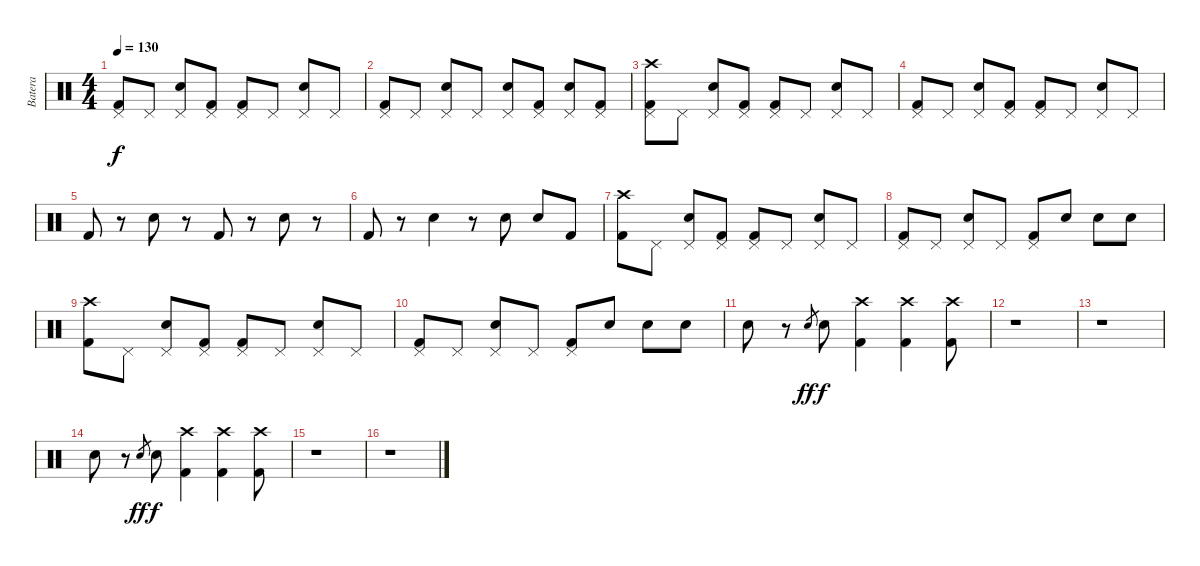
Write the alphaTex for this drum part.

\track ("Batera" "Batera") {instrument percussion}
\staff {score}
\articulation defaults
\ts (4 4)
\tempo 130
\clef neutral
\ks c
("Pedal Hi-Hat (hit)" "Kick (hit) 2").8{dy f} "Pedal Hi-Hat (hit)".8 ("Pedal Hi-Hat (hit)" "Snare (hit) 2").8 ("Pedal Hi-Hat (hit)" "Kick (hit) 2").8 ("Pedal Hi-Hat (hit)" "Kick (hit) 2").8 "Pedal Hi-Hat (hit)".8 ("Pedal Hi-Hat (hit)" "Snare (hit) 2").8 "Pedal Hi-Hat (hit)".8 |
("Pedal Hi-Hat (hit)" "Kick (hit) 2").8 "Pedal Hi-Hat (hit)".8 ("Pedal Hi-Hat (hit)" "Snare (hit) 2").8 "Pedal Hi-Hat (hit)".8 ("Pedal Hi-Hat (hit)" "Snare (hit) 2").8 ("Pedal Hi-Hat (hit)" "Kick (hit) 2").8 ("Pedal Hi-Hat (hit)" "Snare (hit) 2").8 ("Pedal Hi-Hat (hit)" "Kick (hit) 2").8 |
("Pedal Hi-Hat (hit)" "Crash high (hit)" "Kick (hit) 2").8 "Pedal Hi-Hat (hit)".8 ("Pedal Hi-Hat (hit)" "Snare (hit) 2").8 ("Pedal Hi-Hat (hit)" "Kick (hit) 2").8 ("Pedal Hi-Hat (hit)" "Kick (hit) 2").8 "Pedal Hi-Hat (hit)".8 ("Pedal Hi-Hat (hit)" "Snare (hit) 2").8 "Pedal Hi-Hat (hit)".8 |
("Pedal Hi-Hat (hit)" "Kick (hit) 2").8 "Pedal Hi-Hat (hit)".8 ("Pedal Hi-Hat (hit)" "Snare (hit) 2").8 ("Pedal Hi-Hat (hit)" "Kick (hit) 2").8 ("Pedal Hi-Hat (hit)" "Kick (hit) 2").8 "Pedal Hi-Hat (hit)".8 ("Pedal Hi-Hat (hit)" "Snare (hit) 2").8 "Pedal Hi-Hat (hit)".8 |
"Kick (hit) 2".8 r.8 "Snare (hit) 2".8 r.8 "Kick (hit) 2".8 r.8 "Snare (hit) 2".8 r.8 |
"Kick (hit) 2".8 r.8 "Snare (hit) 2".4 r.8 "Snare (hit) 2".8 "Snare (hit) 2".8 "Kick (hit) 2".8 |
("Crash high (hit)" "Kick (hit) 2").8 "Pedal Hi-Hat (hit)".8 ("Pedal Hi-Hat (hit)" "Snare (hit) 2").8 ("Pedal Hi-Hat (hit)" "Kick (hit) 2").8 ("Pedal Hi-Hat (hit)" "Kick (hit) 2").8 "Pedal Hi-Hat (hit)".8 ("Pedal Hi-Hat (hit)" "Snare (hit) 2").8 "Pedal Hi-Hat (hit)".8 |
("Pedal Hi-Hat (hit)" "Kick (hit) 2").8 "Pedal Hi-Hat (hit)".8 ("Pedal Hi-Hat (hit)" "Snare (hit) 2").8 "Pedal Hi-Hat (hit)".8 ("Pedal Hi-Hat (hit)" "Kick (hit) 2").8 "Snare (hit) 2".8 "Snare (hit) 2".8 "Snare (hit) 2".8 |
("Crash high (hit)" "Kick (hit) 2").8 "Pedal Hi-Hat (hit)".8 ("Pedal Hi-Hat (hit)" "Snare (hit) 2").8 ("Pedal Hi-Hat (hit)" "Kick (hit) 2").8 ("Pedal Hi-Hat (hit)" "Kick (hit) 2").8 "Pedal Hi-Hat (hit)".8 ("Pedal Hi-Hat (hit)" "Snare (hit) 2").8 "Pedal Hi-Hat (hit)".8 |
("Pedal Hi-Hat (hit)" "Kick (hit) 2").8 "Pedal Hi-Hat (hit)".8 ("Pedal Hi-Hat (hit)" "Snare (hit) 2").8 "Pedal Hi-Hat (hit)".8 ("Pedal Hi-Hat (hit)" "Kick (hit) 2").8 "Snare (hit) 2".8 "Snare (hit) 2".8 "Snare (hit) 2".8 |
"Snare (hit) 2".8 r.8 "Snare (hit) 2".8{gr dy ff} "Snare (hit) 2".8{dy f} ("Crash high (hit)" "Kick (hit) 2").4 ("Crash high (hit)" "Kick (hit) 2").4 ("Crash high (hit)" "Kick (hit) 2").8 |
r.1 |
r.1 |
"Snare (hit) 2".8 r.8 "Snare (hit) 2".8{gr dy ff} "Snare (hit) 2".8{dy f} ("Crash high (hit)" "Kick (hit) 2").4 ("Crash high (hit)" "Kick (hit) 2").4 ("Crash high (hit)" "Kick (hit) 2").8 |
r.1 |
r.1
